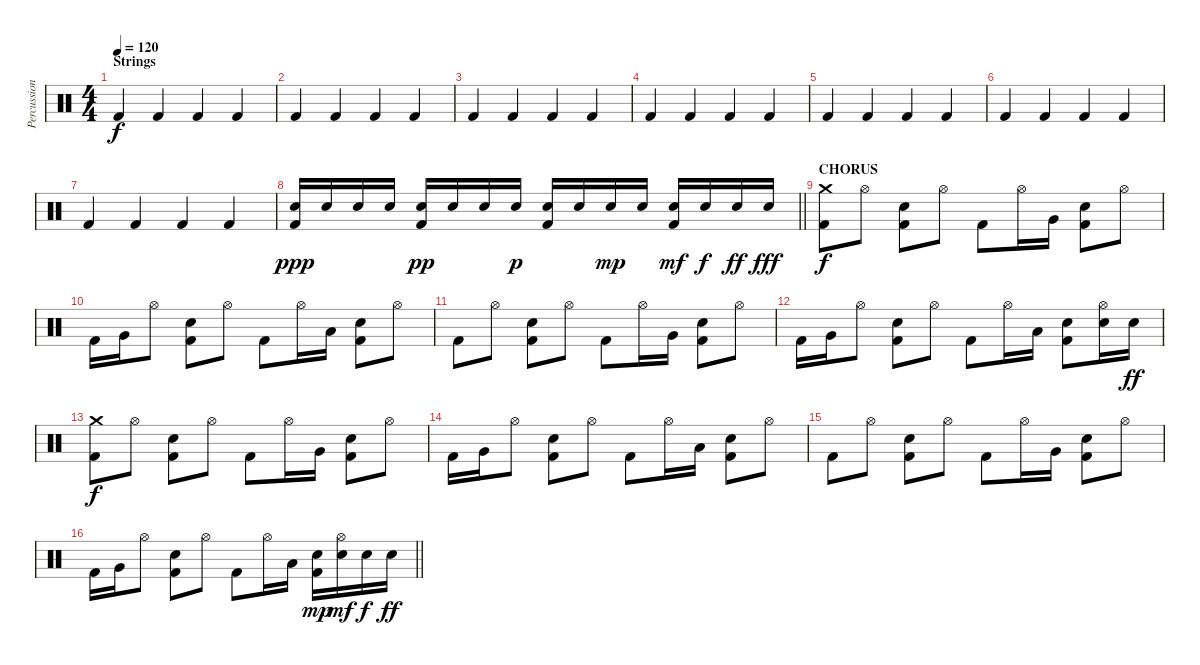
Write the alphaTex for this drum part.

\track ("Percussion" "Percussion") {instrument percussion}
\staff {score}
\articulation defaults
\ts (4 4)
\section ("" "Strings")
\tempo 120
\clef neutral
\ks c "Kick (hit) 2".4{dy f} "Kick (hit) 2".4 "Kick (hit) 2".4 "Kick (hit) 2".4
|
"Kick (hit) 2".4 "Kick (hit) 2".4 "Kick (hit) 2".4 "Kick (hit) 2".4 |
"Kick (hit) 2".4 "Kick (hit) 2".4 "Kick (hit) 2".4 "Kick (hit) 2".4 |
"Kick (hit) 2".4 "Kick (hit) 2".4 "Kick (hit) 2".4 "Kick (hit) 2".4 |
"Kick (hit) 2".4 "Kick (hit) 2".4 "Kick (hit) 2".4 "Kick (hit) 2".4 |
"Kick (hit) 2".4 "Kick (hit) 2".4 "Kick (hit) 2".4 "Kick (hit) 2".4 |
"Kick (hit) 2".4 "Kick (hit) 2".4 "Kick (hit) 2".4 "Kick (hit) 2".4 |
\barLineRight lightlight
("Electric Snare (hit)" "Kick (hit) 2").16{dy ppp} "Electric Snare (hit)".16 "Electric Snare (hit)".16 "Electric Snare (hit)".16 ("Electric Snare (hit)" "Kick (hit) 2").16{dy pp} "Electric Snare (hit)".16 "Electric Snare (hit)".16 "Electric Snare (hit)".16{dy p} ("Electric Snare (hit)" "Kick (hit) 2").16 "Electric Snare (hit)".16 "Electric Snare (hit)".16{dy mp} "Electric Snare (hit)".16 ("Electric Snare (hit)" "Kick (hit) 2").16{dy mf} "Electric Snare (hit)".16{dy f} "Electric Snare (hit)".16{dy ff} "Electric Snare (hit)".16{dy fff} |
\section ("" "CHORUS")
("Crash medium (hit)" "Kick (hit) 2").8{dy f} "Hi-Hat (open)".8 ("Electric Snare (hit)" "Kick (hit) 2").8 "Hi-Hat (open)".8 "Kick (hit) 2".8 "Hi-Hat (open)".16 "Very Low Tom (hit)".16 ("Electric Snare (hit)" "Kick (hit) 2").8 "Hi-Hat (open)".8 |
"Kick (hit) 2".16 "Very Low Tom (hit)".16 "Hi-Hat (open)".8 ("Electric Snare (hit)" "Kick (hit) 2").8 "Hi-Hat (open)".8 "Kick (hit) 2".8 "Hi-Hat (open)".16 "Low Tom (hit)".16 ("Electric Snare (hit)" "Kick (hit) 2").8 "Hi-Hat (open)".8 |
"Kick (hit) 2".8 "Hi-Hat (open)".8 ("Electric Snare (hit)" "Kick (hit) 2").8 "Hi-Hat (open)".8 "Kick (hit) 2".8 "Hi-Hat (open)".16 "Very Low Tom (hit)".16 ("Electric Snare (hit)" "Kick (hit) 2").8 "Hi-Hat (open)".8 |
"Kick (hit) 2".16 "Very Low Tom (hit)".16 "Hi-Hat (open)".8 ("Electric Snare (hit)" "Kick (hit) 2").8 "Hi-Hat (open)".8 "Kick (hit) 2".8 "Hi-Hat (open)".16 "Low Tom (hit)".16 ("Electric Snare (hit)" "Kick (hit) 2").8 ("Hi-Hat (open)" "Electric Snare (hit)").16 "Electric Snare (hit)".16{dy ff} |
("Crash medium (hit)" "Kick (hit) 2").8{dy f} "Hi-Hat (open)".8 ("Electric Snare (hit)" "Kick (hit) 2").8 "Hi-Hat (open)".8 "Kick (hit) 2".8 "Hi-Hat (open)".16 "Very Low Tom (hit)".16 ("Electric Snare (hit)" "Kick (hit) 2").8 "Hi-Hat (open)".8 |
"Kick (hit) 2".16 "Very Low Tom (hit)".16 "Hi-Hat (open)".8 ("Electric Snare (hit)" "Kick (hit) 2").8 "Hi-Hat (open)".8 "Kick (hit) 2".8 "Hi-Hat (open)".16 "Low Tom (hit)".16 ("Electric Snare (hit)" "Kick (hit) 2").8 "Hi-Hat (open)".8 |
"Kick (hit) 2".8 "Hi-Hat (open)".8 ("Electric Snare (hit)" "Kick (hit) 2").8 "Hi-Hat (open)".8 "Kick (hit) 2".8 "Hi-Hat (open)".16 "Very Low Tom (hit)".16 ("Electric Snare (hit)" "Kick (hit) 2").8 "Hi-Hat (open)".8 |
\barLineRight lightlight "Kick (hit) 2".16 "Very Low Tom (hit)".16 "Hi-Hat (open)".8
("Electric Snare (hit)" "Kick (hit) 2").8 "Hi-Hat (open)".8 "Kick (hit) 2".8 "Hi-Hat (open)".16 "Low Tom (hit)".16 ("Electric Snare (hit)" "Kick (hit) 2").16{dy mp} ("Hi-Hat (open)" "Electric Snare (hit)").16{dy mf} "Electric Snare (hit)".16{dy f} "Electric Snare (hit)".16{dy ff}
